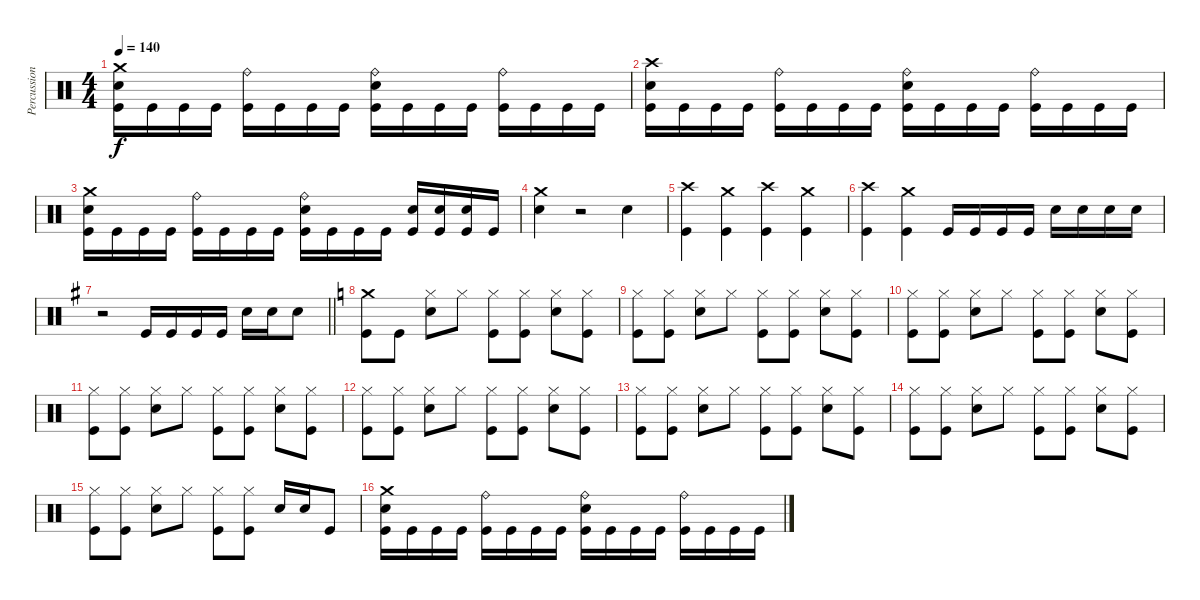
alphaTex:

\track ("Percussion" "Percussion") {instrument percussion}
\staff {score}
\articulation defaults
\ts (4 4)
\tempo 140
\clef neutral
\ks c
("Kick (hit)" "Snare (hit) 2" "Crash medium (hit)").16{dy f} "Kick (hit)".16 "Kick (hit)".16 "Kick (hit)".16 ("Kick (hit)" "Ride (bell)").16 "Kick (hit)".16 "Kick (hit)".16 "Kick (hit)".16 ("Kick (hit)" "Snare (hit) 2" "Ride (bell)").16 "Kick (hit)".16 "Kick (hit)".16 "Kick (hit)".16 ("Kick (hit)" "Ride (bell)").16 "Kick (hit)".16 "Kick (hit)".16 "Kick (hit)".16 |
("Kick (hit)" "Snare (hit) 2" "Crash high (hit)").16 "Kick (hit)".16 "Kick (hit)".16 "Kick (hit)".16 ("Kick (hit)" "Ride (bell)").16 "Kick (hit)".16 "Kick (hit)".16 "Kick (hit)".16 ("Kick (hit)" "Snare (hit) 2" "Ride (bell)").16 "Kick (hit)".16 "Kick (hit)".16 "Kick (hit)".16 ("Kick (hit)" "Ride (bell)").16 "Kick (hit)".16 "Kick (hit)".16 "Kick (hit)".16 |
("Kick (hit)" "Snare (hit) 2" "Crash medium (hit)").16 "Kick (hit)".16 "Kick (hit)".16 "Kick (hit)".16 ("Kick (hit)" "Ride (bell)").16 "Kick (hit)".16 "Kick (hit)".16 "Kick (hit)".16 ("Kick (hit)" "Snare (hit) 2" "Ride (bell)").16 "Kick (hit)".16 "Kick (hit)".16 "Kick (hit)".16 ("Kick (hit)" "Snare (hit) 2").16 ("Kick (hit)" "Snare (hit) 2").16 ("Kick (hit)" "Snare (hit) 2").16 "Kick (hit)".16 |
("Snare (hit) 2" "Crash medium (hit)").4 r.2 "Snare (hit) 2".4 |
("Kick (hit)" "Crash high (hit)").4 ("Kick (hit)" "Crash medium (hit)").4 ("Kick (hit)" "Crash high (hit)").4 ("Kick (hit)" "Crash medium (hit)").4 |
("Kick (hit)" "Crash high (hit)").4 ("Kick (hit)" "Crash medium (hit)").4 "Kick (hit)".16 "Kick (hit)".16 "Kick (hit)".16 "Kick (hit)".16 "Snare (hit) 2".16 "Snare (hit) 2".16 "Snare (hit) 2".16 "Snare (hit) 2".16 |
\barLineRight lightlight
\ks g
r.2 "Kick (hit)".16 "Kick (hit)".16 "Kick (hit)".16 "Kick (hit)".16 "Snare (hit) 2".16 "Snare (hit) 2".16 "Snare (hit) 2".8 |
\ks c
("Kick (hit)" "Crash medium (hit)").8 "Kick (hit)".8 ("Snare (hit) 2" "Hi-Hat (closed)").8 "Hi-Hat (closed)".8 ("Kick (hit)" "Hi-Hat (closed)").8 ("Kick (hit)" "Hi-Hat (closed)").8 ("Snare (hit) 2" "Hi-Hat (closed)").8 ("Kick (hit)" "Hi-Hat (closed)").8 |
("Kick (hit)" "Hi-Hat (closed)").8 ("Kick (hit)" "Hi-Hat (closed)").8 ("Snare (hit) 2" "Hi-Hat (closed)").8 "Hi-Hat (closed)".8 ("Kick (hit)" "Hi-Hat (closed)").8 ("Kick (hit)" "Hi-Hat (closed)").8 ("Snare (hit) 2" "Hi-Hat (closed)").8 ("Kick (hit)" "Hi-Hat (closed)").8 |
("Kick (hit)" "Hi-Hat (closed)").8 ("Kick (hit)" "Hi-Hat (closed)").8 ("Snare (hit) 2" "Hi-Hat (closed)").8 "Hi-Hat (closed)".8 ("Kick (hit)" "Hi-Hat (closed)").8 ("Kick (hit)" "Hi-Hat (closed)").8 ("Snare (hit) 2" "Hi-Hat (closed)").8 ("Kick (hit)" "Hi-Hat (closed)").8 |
("Kick (hit)" "Hi-Hat (closed)").8 ("Kick (hit)" "Hi-Hat (closed)").8 ("Snare (hit) 2" "Hi-Hat (closed)").8 "Hi-Hat (closed)".8 ("Kick (hit)" "Hi-Hat (closed)").8 ("Kick (hit)" "Hi-Hat (closed)").8 ("Snare (hit) 2" "Hi-Hat (closed)").8 ("Kick (hit)" "Hi-Hat (closed)").8 |
("Kick (hit)" "Hi-Hat (closed)").8 ("Kick (hit)" "Hi-Hat (closed)").8 ("Snare (hit) 2" "Hi-Hat (closed)").8 "Hi-Hat (closed)".8 ("Kick (hit)" "Hi-Hat (closed)").8 ("Kick (hit)" "Hi-Hat (closed)").8 ("Snare (hit) 2" "Hi-Hat (closed)").8 ("Kick (hit)" "Hi-Hat (closed)").8 |
("Kick (hit)" "Hi-Hat (closed)").8 ("Kick (hit)" "Hi-Hat (closed)").8 ("Snare (hit) 2" "Hi-Hat (closed)").8 "Hi-Hat (closed)".8 ("Kick (hit)" "Hi-Hat (closed)").8 ("Kick (hit)" "Hi-Hat (closed)").8 ("Snare (hit) 2" "Hi-Hat (closed)").8 ("Kick (hit)" "Hi-Hat (closed)").8 |
("Kick (hit)" "Hi-Hat (closed)").8 ("Kick (hit)" "Hi-Hat (closed)").8 ("Snare (hit) 2" "Hi-Hat (closed)").8 "Hi-Hat (closed)".8 ("Kick (hit)" "Hi-Hat (closed)").8 ("Kick (hit)" "Hi-Hat (closed)").8 ("Snare (hit) 2" "Hi-Hat (closed)").8 ("Kick (hit)" "Hi-Hat (closed)").8 |
("Kick (hit)" "Hi-Hat (closed)").8 ("Kick (hit)" "Hi-Hat (closed)").8 ("Snare (hit) 2" "Hi-Hat (closed)").8 "Hi-Hat (closed)".8 ("Kick (hit)" "Hi-Hat (closed)").8 ("Kick (hit)" "Hi-Hat (closed)").8 "Snare (hit) 2".16 "Snare (hit) 2".16 "Kick (hit)".8 |
("Kick (hit)" "Snare (hit) 2" "Crash medium (hit)").16 "Kick (hit)".16 "Kick (hit)".16 "Kick (hit)".16 ("Kick (hit)" "Ride (bell)").16 "Kick (hit)".16 "Kick (hit)".16 "Kick (hit)".16 ("Kick (hit)" "Snare (hit) 2" "Ride (bell)").16 "Kick (hit)".16 "Kick (hit)".16 "Kick (hit)".16 ("Kick (hit)" "Ride (bell)").16 "Kick (hit)".16 "Kick (hit)".16 "Kick (hit)".16
